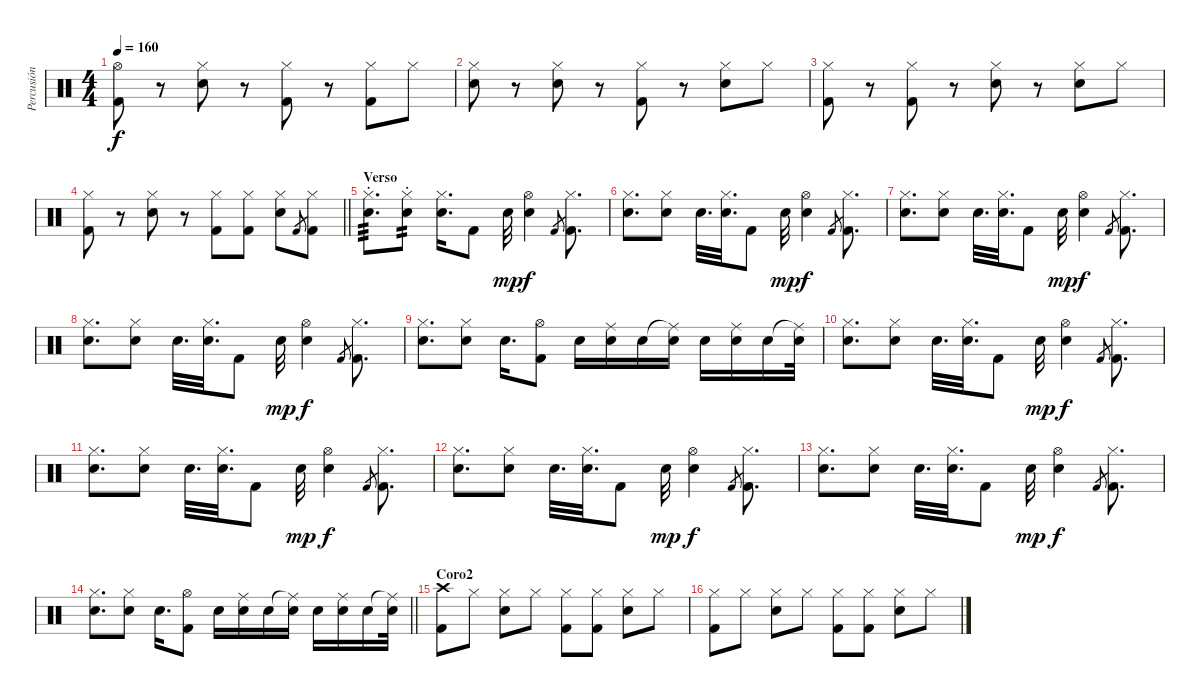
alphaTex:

\track ("Percusión" "Percusión") {instrument percussion}
\staff {score}
\articulation defaults
\ts (4 4)
\tempo 160
\clef neutral
\ks c
("Hi-Hat (open)" "Kick (hit) 2").8{dy f} r.8 ("Hi-Hat (closed)" "Snare (hit) 2").8 r.8 ("Hi-Hat (closed)" "Kick (hit) 2").8 r.8 ("Hi-Hat (closed)" "Kick (hit) 2").8 "Hi-Hat (closed)".8 |
("Hi-Hat (closed)" "Snare (hit) 2").8 r.8 ("Hi-Hat (closed)" "Snare (hit) 2").8 r.8 ("Hi-Hat (closed)" "Kick (hit) 2").8 r.8 ("Hi-Hat (closed)" "Snare (hit) 2").8 "Hi-Hat (closed)".8 |
("Hi-Hat (closed)" "Kick (hit) 2").8 r.8 ("Hi-Hat (closed)" "Kick (hit) 2").8 r.8 ("Hi-Hat (closed)" "Snare (hit) 2").8 r.8 ("Hi-Hat (closed)" "Snare (hit) 2").8 "Hi-Hat (closed)".8 |
\barLineRight lightlight
("Hi-Hat (closed)" "Kick (hit) 2").8 r.8 ("Hi-Hat (closed)" "Snare (hit) 2").8 r.8 ("Hi-Hat (closed)" "Kick (hit) 2").8 ("Hi-Hat (closed)" "Kick (hit) 2").8 ("Hi-Hat (closed)" "Snare (hit) 2").8 "Kick (hit) 2".8{gr} ("Hi-Hat (closed)" "Kick (hit) 2").8 |
\section ("" "Verso")
("Hi-Hat (closed)" "Electric Snare (hit)"{st}).8{d tp 3} ("Hi-Hat (closed)" "Electric Snare (hit)"{st}).8{tp 2} ("Hi-Hat (closed)" "Electric Snare (hit)").16{d} "Kick (hit) 2".8 "Electric Snare (hit)".32{dy mp} ("Hi-Hat (open)" "Electric Snare (hit)").4{dy f} "Kick (hit) 2".8{gr} ("Hi-Hat (closed)" "Kick (hit) 2").8{d} |
("Hi-Hat (closed)" "Electric Snare (hit)").8{d} ("Hi-Hat (closed)" "Electric Snare (hit)").8 "Electric Snare (hit)".32{d} ("Hi-Hat (closed)" "Electric Snare (hit)").32{d} "Kick (hit) 2".8 "Electric Snare (hit)".32{dy mp} ("Hi-Hat (open)" "Electric Snare (hit)").4{dy f} "Kick (hit) 2".8{gr} ("Hi-Hat (closed)" "Kick (hit) 2").8{d} |
("Hi-Hat (closed)" "Electric Snare (hit)").8{d} ("Hi-Hat (closed)" "Electric Snare (hit)").8 "Electric Snare (hit)".32{d} ("Hi-Hat (closed)" "Electric Snare (hit)").32{d} "Kick (hit) 2".8 "Electric Snare (hit)".32{dy mp} ("Hi-Hat (open)" "Electric Snare (hit)").4{dy f} "Kick (hit) 2".8{gr} ("Hi-Hat (closed)" "Kick (hit) 2").8{d} |
("Hi-Hat (closed)" "Electric Snare (hit)").8{d} ("Hi-Hat (closed)" "Electric Snare (hit)").8 "Electric Snare (hit)".32{d} ("Hi-Hat (closed)" "Electric Snare (hit)").32{d} "Kick (hit) 2".8 "Electric Snare (hit)".32{dy mp} ("Hi-Hat (open)" "Electric Snare (hit)").4{dy f} "Kick (hit) 2".8{gr} ("Hi-Hat (closed)" "Kick (hit) 2").8{d} |
("Hi-Hat (closed)" "Electric Snare (hit)").8{d} ("Hi-Hat (closed)" "Electric Snare (hit)").8 "Electric Snare (hit)".16{d} ("Hi-Hat (open)" "Kick (hit) 2").8 "Electric Snare (hit)".16 ("Ride (middle)" "Electric Snare (hit)").16 "Electric Snare (hit)".16 ("Ride (middle)"{t} "Electric Snare (hit)").16 "Electric Snare (hit)".16 ("Ride (middle)" "Electric Snare (hit)").16 "Electric Snare (hit)".16 ("Ride (middle)"{t} "Electric Snare (hit)").32 |
("Hi-Hat (closed)" "Electric Snare (hit)").8{d} ("Hi-Hat (closed)" "Electric Snare (hit)").8 "Electric Snare (hit)".32{d} ("Hi-Hat (closed)" "Electric Snare (hit)").32{d} "Kick (hit) 2".8 "Electric Snare (hit)".32{dy mp} ("Hi-Hat (open)" "Electric Snare (hit)").4{dy f} "Kick (hit) 2".8{gr} ("Hi-Hat (closed)" "Kick (hit) 2").8{d} |
("Hi-Hat (closed)" "Electric Snare (hit)").8{d} ("Hi-Hat (closed)" "Electric Snare (hit)").8 "Electric Snare (hit)".32{d} ("Hi-Hat (closed)" "Electric Snare (hit)").32{d} "Kick (hit) 2".8 "Electric Snare (hit)".32{dy mp} ("Hi-Hat (open)" "Electric Snare (hit)").4{dy f} "Kick (hit) 2".8{gr} ("Hi-Hat (closed)" "Kick (hit) 2").8{d} |
("Hi-Hat (closed)" "Electric Snare (hit)").8{d} ("Hi-Hat (closed)" "Electric Snare (hit)").8 "Electric Snare (hit)".32{d} ("Hi-Hat (closed)" "Electric Snare (hit)").32{d} "Kick (hit) 2".8 "Electric Snare (hit)".32{dy mp} ("Hi-Hat (open)" "Electric Snare (hit)").4{dy f} "Kick (hit) 2".8{gr} ("Hi-Hat (closed)" "Kick (hit) 2").8{d} |
("Hi-Hat (closed)" "Electric Snare (hit)").8{d} ("Hi-Hat (closed)" "Electric Snare (hit)").8 "Electric Snare (hit)".32{d} ("Hi-Hat (closed)" "Electric Snare (hit)").32{d} "Kick (hit) 2".8 "Electric Snare (hit)".32{dy mp} ("Hi-Hat (open)" "Electric Snare (hit)").4{dy f} "Kick (hit) 2".8{gr} ("Hi-Hat (closed)" "Kick (hit) 2").8{d} |
\barLineRight lightlight
("Hi-Hat (closed)" "Electric Snare (hit)").8{d} ("Hi-Hat (closed)" "Electric Snare (hit)").8 "Electric Snare (hit)".16{d} ("Hi-Hat (open)" "Kick (hit) 2").8 "Electric Snare (hit)".16 ("Ride (middle)" "Electric Snare (hit)").16 "Electric Snare (hit)".16 ("Ride (middle)"{t} "Electric Snare (hit)").16 "Electric Snare (hit)".16 ("Ride (middle)" "Electric Snare (hit)").16 "Electric Snare (hit)".16 ("Ride (middle)"{t} "Electric Snare (hit)").32 |
\section ("" "Coro2")
("Crash high (hit)" "Kick (hit) 2").8 "Hi-Hat (closed)".8 ("Hi-Hat (closed)" "Snare (hit) 2").8 "Hi-Hat (closed)".8 ("Hi-Hat (closed)" "Kick (hit) 2").8 ("Hi-Hat (closed)" "Kick (hit) 2").8 ("Hi-Hat (closed)" "Snare (hit) 2").8 "Hi-Hat (closed)".8 |
("Hi-Hat (closed)" "Kick (hit) 2").8 "Hi-Hat (closed)".8 ("Hi-Hat (closed)" "Snare (hit) 2").8 "Hi-Hat (closed)".8 ("Hi-Hat (closed)" "Kick (hit) 2").8 ("Hi-Hat (closed)" "Kick (hit) 2").8 ("Hi-Hat (closed)" "Snare (hit) 2").8 "Hi-Hat (closed)".8
